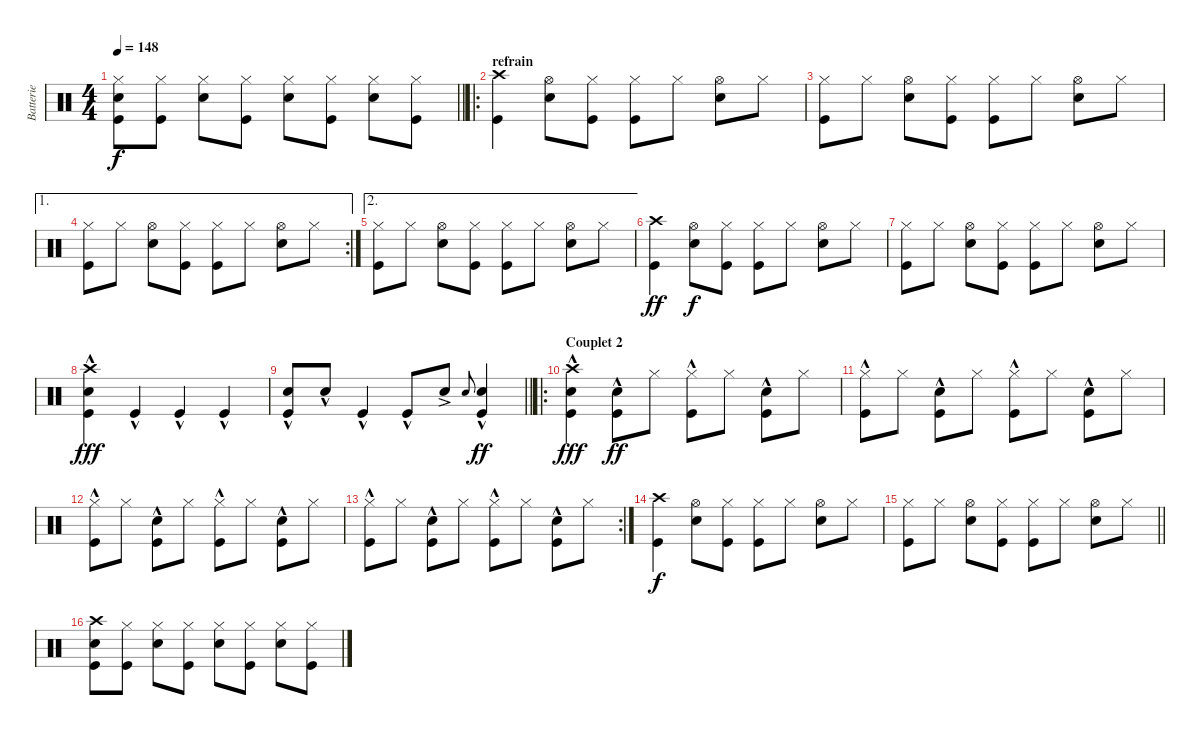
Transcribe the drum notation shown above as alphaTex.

\track ("Batterie" "Batterie") {instrument percussion}
\staff {score}
\articulation defaults
\ts (4 4)
\tempo 148
\clef neutral
\barLineRight lightlight
\ks c
("Hi-Hat (closed)" "Snare (hit) 2" "Kick (hit)").8{dy f} ("Kick (hit)" "Hi-Hat (closed)").8 ("Hi-Hat (closed)" "Snare (hit) 2").8 ("Kick (hit)" "Hi-Hat (closed)").8 ("Snare (hit) 2" "Hi-Hat (closed)").8 ("Kick (hit)" "Hi-Hat (closed)").8 ("Snare (hit) 2" "Hi-Hat (closed)").8 ("Kick (hit)" "Hi-Hat (closed)").8 |
\ro
\section ("" "refrain")
("Kick (hit)" "Crash high (hit)").4 ("Snare (hit) 2" "Hi-Hat (open)").8 ("Kick (hit)" "Hi-Hat (closed)").8 ("Kick (hit)" "Hi-Hat (closed)").8 "Hi-Hat (closed)".8 ("Snare (hit) 2" "Hi-Hat (open)").8 "Hi-Hat (closed)".8 |
("Kick (hit)" "Hi-Hat (closed)").8 "Hi-Hat (closed)".8 ("Snare (hit) 2" "Hi-Hat (open)").8 ("Hi-Hat (closed)" "Kick (hit)").8 ("Kick (hit)" "Hi-Hat (closed)").8 "Hi-Hat (closed)".8 ("Hi-Hat (open)" "Snare (hit) 2").8 "Hi-Hat (closed)".8 |
\ae 1
\rc 2
("Kick (hit)" "Hi-Hat (closed)").8 "Hi-Hat (closed)".8 ("Snare (hit) 2" "Hi-Hat (open)").8 ("Hi-Hat (closed)" "Kick (hit)").8 ("Kick (hit)" "Hi-Hat (closed)").8 "Hi-Hat (closed)".8 ("Hi-Hat (open)" "Snare (hit) 2").8 "Hi-Hat (closed)".8 |
\ae 2
("Kick (hit)" "Hi-Hat (closed)").8 "Hi-Hat (closed)".8 ("Snare (hit) 2" "Hi-Hat (open)").8 ("Hi-Hat (closed)" "Kick (hit)").8 ("Kick (hit)" "Hi-Hat (closed)").8 "Hi-Hat (closed)".8 ("Hi-Hat (open)" "Snare (hit) 2").8 "Hi-Hat (closed)".8 |
("Kick (hit)" "Crash high (hit)").4{dy ff} ("Snare (hit) 2" "Hi-Hat (open)").8{dy f} ("Hi-Hat (closed)" "Kick (hit)").8 ("Kick (hit)" "Hi-Hat (closed)").8 "Hi-Hat (closed)".8 ("Hi-Hat (open)" "Snare (hit) 2").8 "Hi-Hat (closed)".8 |
("Kick (hit)" "Hi-Hat (closed)").8 "Hi-Hat (closed)".8 ("Snare (hit) 2" "Hi-Hat (open)").8 ("Hi-Hat (closed)" "Kick (hit)").8 ("Kick (hit)" "Hi-Hat (closed)").8 "Hi-Hat (closed)".8 ("Hi-Hat (open)" "Snare (hit) 2").8 "Hi-Hat (closed)".8 |
("Kick (hit)"{hac} "Crash high (hit)" "Snare (hit) 2").4{dy fff} "Kick (hit)"{hac}.4 "Kick (hit)"{hac}.4 "Kick (hit)"{hac}.4 |
\barLineRight lightlight
("Kick (hit)"{hac} "Snare (hit) 2"{hac}).8 "Snare (hit) 2"{hac}.8 "Kick (hit)"{hac}.4 "Kick (hit)"{hac}.8 "Snare (hit) 2"{ac}.8 "Snare (hit) 2".8{gr onbeat} ("Kick (hit)"{hac} "Snare (hit) 2").4{dy ff} |
\ro
\section ("" "Couplet 2")
("Kick (hit)"{hac} "Crash high (hit)" "Snare (hit) 2").4{dy fff} ("Kick (hit)"{hac} "Snare (hit) 2").8{dy ff} "Hi-Hat (closed)".8 ("Kick (hit)"{hac} "Hi-Hat (closed)").8 "Hi-Hat (closed)".8 ("Kick (hit)"{hac} "Snare (hit) 2").8 "Hi-Hat (closed)".8 |
("Kick (hit)"{hac} "Hi-Hat (closed)").8 "Hi-Hat (closed)".8 ("Kick (hit)"{hac} "Snare (hit) 2").8 "Hi-Hat (closed)".8 ("Kick (hit)"{hac} "Hi-Hat (closed)").8 "Hi-Hat (closed)".8 ("Kick (hit)"{hac} "Snare (hit) 2").8 "Hi-Hat (closed)".8 |
("Kick (hit)"{hac} "Hi-Hat (closed)").8 "Hi-Hat (closed)".8 ("Kick (hit)"{hac} "Snare (hit) 2").8 "Hi-Hat (closed)".8 ("Kick (hit)"{hac} "Hi-Hat (closed)").8 "Hi-Hat (closed)".8 ("Kick (hit)"{hac} "Snare (hit) 2").8 "Hi-Hat (closed)".8 |
\rc 2
("Kick (hit)"{hac} "Hi-Hat (closed)").8 "Hi-Hat (closed)".8 ("Kick (hit)"{hac} "Snare (hit) 2").8 "Hi-Hat (closed)".8 ("Kick (hit)"{hac} "Hi-Hat (closed)").8 "Hi-Hat (closed)".8 ("Kick (hit)"{hac} "Snare (hit) 2").8 "Hi-Hat (closed)".8 |
("Kick (hit)" "Crash high (hit)").4{dy f} ("Snare (hit) 2" "Hi-Hat (open)").8 ("Kick (hit)" "Hi-Hat (closed)").8 ("Kick (hit)" "Hi-Hat (closed)").8 "Hi-Hat (closed)".8 ("Snare (hit) 2" "Hi-Hat (open)").8 "Hi-Hat (closed)".8 |
\barLineRight lightlight
("Kick (hit)" "Hi-Hat (closed)").8 "Hi-Hat (closed)".8 ("Snare (hit) 2" "Hi-Hat (open)").8 ("Hi-Hat (closed)" "Kick (hit)").8 ("Kick (hit)" "Hi-Hat (closed)").8 "Hi-Hat (closed)".8 ("Hi-Hat (open)" "Snare (hit) 2").8 "Hi-Hat (closed)".8 |
("Crash high (hit)" "Snare (hit) 2" "Kick (hit)").8 ("Kick (hit)" "Hi-Hat (closed)").8 ("Hi-Hat (closed)" "Snare (hit) 2").8 ("Kick (hit)" "Hi-Hat (closed)").8 ("Snare (hit) 2" "Hi-Hat (closed)").8 ("Kick (hit)" "Hi-Hat (closed)").8 ("Snare (hit) 2" "Hi-Hat (closed)").8 ("Kick (hit)" "Hi-Hat (closed)").8
